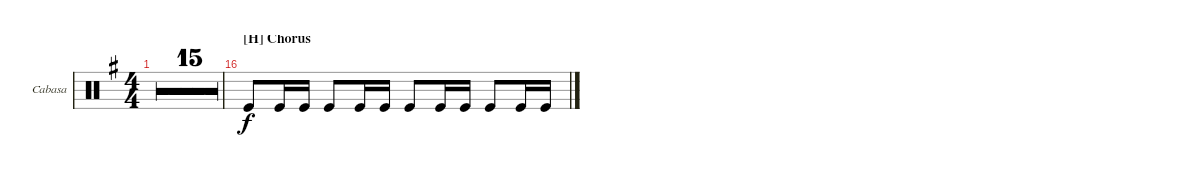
\defaultSystemsLayout 4
\bracketExtendMode groupsimilarinstruments
\firstSystemTrackNameOrientation horizontal
\otherSystemsTrackNameOrientation horizontal
\track ("Cabasa" "Cabasa") {multiBarRest instrument percussion}
\staff {score}
\articulation defaults
\ts (4 4)
\tempo 98
\clef neutral
\ks g
r.1{dy f} |
r.1 |
r.1 |
r.1 |
r.1 |
r.1 |
r.1 |
r.1 |
r.1 |
r.1 |
r.1 |
r.1 |
r.1 |
r.1 |
r.1 |
\section ("H" "Chorus")
"Kick (hit)".8 "Kick (hit)".16 "Kick (hit)".16 "Kick (hit)".8 "Kick (hit)".16 "Kick (hit)".16 "Kick (hit)".8 "Kick (hit)".16 "Kick (hit)".16 "Kick (hit)".8 "Kick (hit)".16 "Kick (hit)".16
